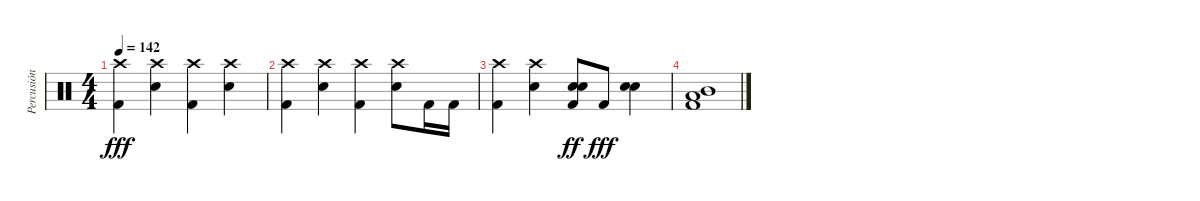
\track ("Percusión" "Percusión") {instrument percussion}
\staff {score}
\articulation defaults
\ts (4 4)
\tempo 142
\clef neutral
\ks c
("Crash high (hit)" "Kick (hit) 2").4{dy fff} ("Crash high (hit)" "Electric Snare (hit)").4 ("Crash high (hit)" "Kick (hit) 2").4 ("Crash high (hit)" "Electric Snare (hit)").4 |
("Crash high (hit)" "Kick (hit) 2").4 ("Crash high (hit)" "Electric Snare (hit)").4 ("Crash high (hit)" "Kick (hit) 2").4 ("Crash high (hit)" "Electric Snare (hit)").8 "Kick (hit) 2".16 "Kick (hit) 2".16 |
("Crash high (hit)" "Kick (hit) 2").4 ("Crash high (hit)" "Electric Snare (hit)").4 ("Snare (hit) 2" "Electric Snare (hit)" "Kick (hit) 2").8{dy ff} "Kick (hit) 2".8{dy fff} ("Snare (hit) 2" "Electric Snare (hit)").4 |
("Low Tom (hit)" "Mid Tom (hit)" "Kick (hit) 2").1
